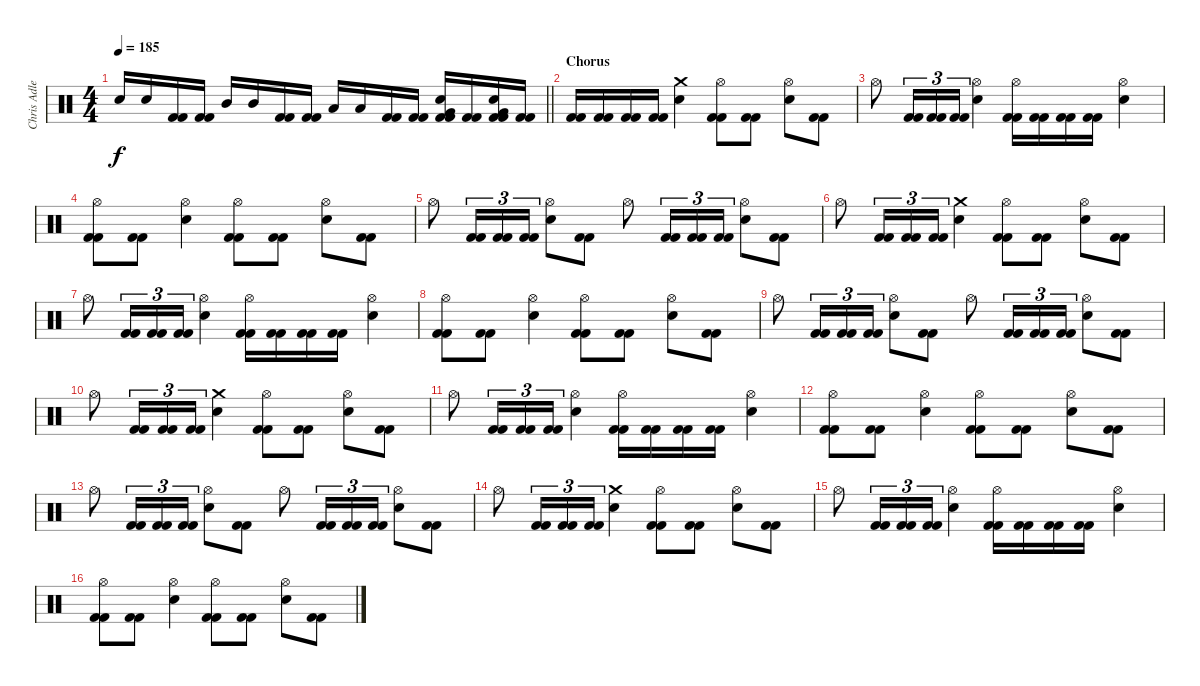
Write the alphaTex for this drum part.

\track ("Chris Adler" "Chris Adle") {instrument percussion}
\staff {score}
\articulation defaults
\ts (4 4)
\tempo 185
\clef neutral
\barLineRight lightlight
\ks c "Electric Snare (hit)".16{dy f} "Electric Snare (hit)".16
("Kick (hit) 2" "Kick (hit) 2").16 ("Kick (hit) 2" "Kick (hit) 2").16 "Mid Tom (hit)".16 "Mid Tom (hit)".16 ("Kick (hit) 2" "Kick (hit) 2").16 ("Kick (hit) 2" "Kick (hit) 2").16 "Low Tom (hit)".16 "Low Tom (hit)".16 ("Kick (hit) 2" "Kick (hit) 2").16 ("Kick (hit) 2" "Kick (hit) 2").16 ("Very Low Tom (hit)" "Electric Snare (hit)" "Kick (hit) 2" "Kick (hit) 2").16 ("Kick (hit) 2" "Kick (hit) 2").16 ("Very Low Tom (hit)" "Electric Snare (hit)" "Kick (hit) 2" "Kick (hit) 2").16 ("Kick (hit) 2" "Kick (hit) 2").16 |
\section ("" "Chorus")
("Kick (hit) 2" "Kick (hit) 2").16 ("Kick (hit) 2" "Kick (hit) 2").16 ("Kick (hit) 2" "Kick (hit) 2").16 ("Kick (hit) 2" "Kick (hit) 2").16 ("Crash medium (hit)" "Electric Snare (hit)").4 ("Hi-Hat (open)" "Kick (hit) 2" "Kick (hit) 2").8 ("Kick (hit) 2" "Kick (hit) 2").8 ("Hi-Hat (open)" "Electric Snare (hit)").8 ("Kick (hit) 2" "Kick (hit) 2").8 |
"Hi-Hat (open)".8 ("Kick (hit) 2" "Kick (hit) 2").16{tu (3 2)} ("Kick (hit) 2" "Kick (hit) 2").16{tu (3 2)} ("Kick (hit) 2" "Kick (hit) 2").16{tu (3 2)} ("Hi-Hat (open)" "Electric Snare (hit)").4 ("Hi-Hat (open)" "Kick (hit) 2" "Kick (hit) 2").16 ("Kick (hit) 2" "Kick (hit) 2").16 ("Kick (hit) 2" "Kick (hit) 2").16 ("Kick (hit) 2" "Kick (hit) 2").16 ("Hi-Hat (open)" "Electric Snare (hit)").4 |
("Hi-Hat (open)" "Kick (hit) 2" "Kick (hit) 2").8 ("Kick (hit) 2" "Kick (hit) 2").8 ("Hi-Hat (open)" "Electric Snare (hit)").4 ("Hi-Hat (open)" "Kick (hit) 2" "Kick (hit) 2").8 ("Kick (hit) 2" "Kick (hit) 2").8 ("Hi-Hat (open)" "Electric Snare (hit)").8 ("Kick (hit) 2" "Kick (hit) 2").8 |
"Hi-Hat (open)".8 ("Kick (hit) 2" "Kick (hit) 2").16{tu (3 2)} ("Kick (hit) 2" "Kick (hit) 2").16{tu (3 2)} ("Kick (hit) 2" "Kick (hit) 2").16{tu (3 2)} ("Hi-Hat (open)" "Electric Snare (hit)").8 ("Kick (hit) 2" "Kick (hit) 2").8 "Hi-Hat (open)".8 ("Kick (hit) 2" "Kick (hit) 2").16{tu (3 2)} ("Kick (hit) 2" "Kick (hit) 2").16{tu (3 2)} ("Kick (hit) 2" "Kick (hit) 2").16{tu (3 2)} ("Hi-Hat (open)" "Electric Snare (hit)").8 ("Kick (hit) 2" "Kick (hit) 2").8 |
"Hi-Hat (open)".8 ("Kick (hit) 2" "Kick (hit) 2").16{tu (3 2)} ("Kick (hit) 2" "Kick (hit) 2").16{tu (3 2)} ("Kick (hit) 2" "Kick (hit) 2").16{tu (3 2)} ("Crash medium (hit)" "Electric Snare (hit)").4 ("Hi-Hat (open)" "Kick (hit) 2" "Kick (hit) 2").8 ("Kick (hit) 2" "Kick (hit) 2").8 ("Hi-Hat (open)" "Electric Snare (hit)").8 ("Kick (hit) 2" "Kick (hit) 2").8 |
"Hi-Hat (open)".8 ("Kick (hit) 2" "Kick (hit) 2").16{tu (3 2)} ("Kick (hit) 2" "Kick (hit) 2").16{tu (3 2)} ("Kick (hit) 2" "Kick (hit) 2").16{tu (3 2)} ("Hi-Hat (open)" "Electric Snare (hit)").4 ("Hi-Hat (open)" "Kick (hit) 2" "Kick (hit) 2").16 ("Kick (hit) 2" "Kick (hit) 2").16 ("Kick (hit) 2" "Kick (hit) 2").16 ("Kick (hit) 2" "Kick (hit) 2").16 ("Hi-Hat (open)" "Electric Snare (hit)").4 |
("Hi-Hat (open)" "Kick (hit) 2" "Kick (hit) 2").8 ("Kick (hit) 2" "Kick (hit) 2").8 ("Hi-Hat (open)" "Electric Snare (hit)").4 ("Hi-Hat (open)" "Kick (hit) 2" "Kick (hit) 2").8 ("Kick (hit) 2" "Kick (hit) 2").8 ("Hi-Hat (open)" "Electric Snare (hit)").8 ("Kick (hit) 2" "Kick (hit) 2").8 |
"Hi-Hat (open)".8 ("Kick (hit) 2" "Kick (hit) 2").16{tu (3 2)} ("Kick (hit) 2" "Kick (hit) 2").16{tu (3 2)} ("Kick (hit) 2" "Kick (hit) 2").16{tu (3 2)} ("Hi-Hat (open)" "Electric Snare (hit)").8 ("Kick (hit) 2" "Kick (hit) 2").8 "Hi-Hat (open)".8 ("Kick (hit) 2" "Kick (hit) 2").16{tu (3 2)} ("Kick (hit) 2" "Kick (hit) 2").16{tu (3 2)} ("Kick (hit) 2" "Kick (hit) 2").16{tu (3 2)} ("Hi-Hat (open)" "Electric Snare (hit)").8 ("Kick (hit) 2" "Kick (hit) 2").8 |
"Hi-Hat (open)".8 ("Kick (hit) 2" "Kick (hit) 2").16{tu (3 2)} ("Kick (hit) 2" "Kick (hit) 2").16{tu (3 2)} ("Kick (hit) 2" "Kick (hit) 2").16{tu (3 2)} ("Crash medium (hit)" "Electric Snare (hit)").4 ("Hi-Hat (open)" "Kick (hit) 2" "Kick (hit) 2").8 ("Kick (hit) 2" "Kick (hit) 2").8 ("Hi-Hat (open)" "Electric Snare (hit)").8 ("Kick (hit) 2" "Kick (hit) 2").8 |
"Hi-Hat (open)".8 ("Kick (hit) 2" "Kick (hit) 2").16{tu (3 2)} ("Kick (hit) 2" "Kick (hit) 2").16{tu (3 2)} ("Kick (hit) 2" "Kick (hit) 2").16{tu (3 2)} ("Hi-Hat (open)" "Electric Snare (hit)").4 ("Hi-Hat (open)" "Kick (hit) 2" "Kick (hit) 2").16 ("Kick (hit) 2" "Kick (hit) 2").16 ("Kick (hit) 2" "Kick (hit) 2").16 ("Kick (hit) 2" "Kick (hit) 2").16 ("Hi-Hat (open)" "Electric Snare (hit)").4 |
("Hi-Hat (open)" "Kick (hit) 2" "Kick (hit) 2").8 ("Kick (hit) 2" "Kick (hit) 2").8 ("Hi-Hat (open)" "Electric Snare (hit)").4 ("Hi-Hat (open)" "Kick (hit) 2" "Kick (hit) 2").8 ("Kick (hit) 2" "Kick (hit) 2").8 ("Hi-Hat (open)" "Electric Snare (hit)").8 ("Kick (hit) 2" "Kick (hit) 2").8 |
"Hi-Hat (open)".8 ("Kick (hit) 2" "Kick (hit) 2").16{tu (3 2)} ("Kick (hit) 2" "Kick (hit) 2").16{tu (3 2)} ("Kick (hit) 2" "Kick (hit) 2").16{tu (3 2)} ("Hi-Hat (open)" "Electric Snare (hit)").8 ("Kick (hit) 2" "Kick (hit) 2").8 "Hi-Hat (open)".8 ("Kick (hit) 2" "Kick (hit) 2").16{tu (3 2)} ("Kick (hit) 2" "Kick (hit) 2").16{tu (3 2)} ("Kick (hit) 2" "Kick (hit) 2").16{tu (3 2)} ("Hi-Hat (open)" "Electric Snare (hit)").8 ("Kick (hit) 2" "Kick (hit) 2").8 |
"Hi-Hat (open)".8 ("Kick (hit) 2" "Kick (hit) 2").16{tu (3 2)} ("Kick (hit) 2" "Kick (hit) 2").16{tu (3 2)} ("Kick (hit) 2" "Kick (hit) 2").16{tu (3 2)} ("Crash medium (hit)" "Electric Snare (hit)").4 ("Hi-Hat (open)" "Kick (hit) 2" "Kick (hit) 2").8 ("Kick (hit) 2" "Kick (hit) 2").8 ("Hi-Hat (open)" "Electric Snare (hit)").8 ("Kick (hit) 2" "Kick (hit) 2").8 |
"Hi-Hat (open)".8 ("Kick (hit) 2" "Kick (hit) 2").16{tu (3 2)} ("Kick (hit) 2" "Kick (hit) 2").16{tu (3 2)} ("Kick (hit) 2" "Kick (hit) 2").16{tu (3 2)} ("Hi-Hat (open)" "Electric Snare (hit)").4 ("Hi-Hat (open)" "Kick (hit) 2" "Kick (hit) 2").16 ("Kick (hit) 2" "Kick (hit) 2").16 ("Kick (hit) 2" "Kick (hit) 2").16 ("Kick (hit) 2" "Kick (hit) 2").16 ("Hi-Hat (open)" "Electric Snare (hit)").4 |
("Hi-Hat (open)" "Kick (hit) 2" "Kick (hit) 2").8 ("Kick (hit) 2" "Kick (hit) 2").8 ("Hi-Hat (open)" "Electric Snare (hit)").4 ("Hi-Hat (open)" "Kick (hit) 2" "Kick (hit) 2").8 ("Kick (hit) 2" "Kick (hit) 2").8 ("Hi-Hat (open)" "Electric Snare (hit)").8 ("Kick (hit) 2" "Kick (hit) 2").8
